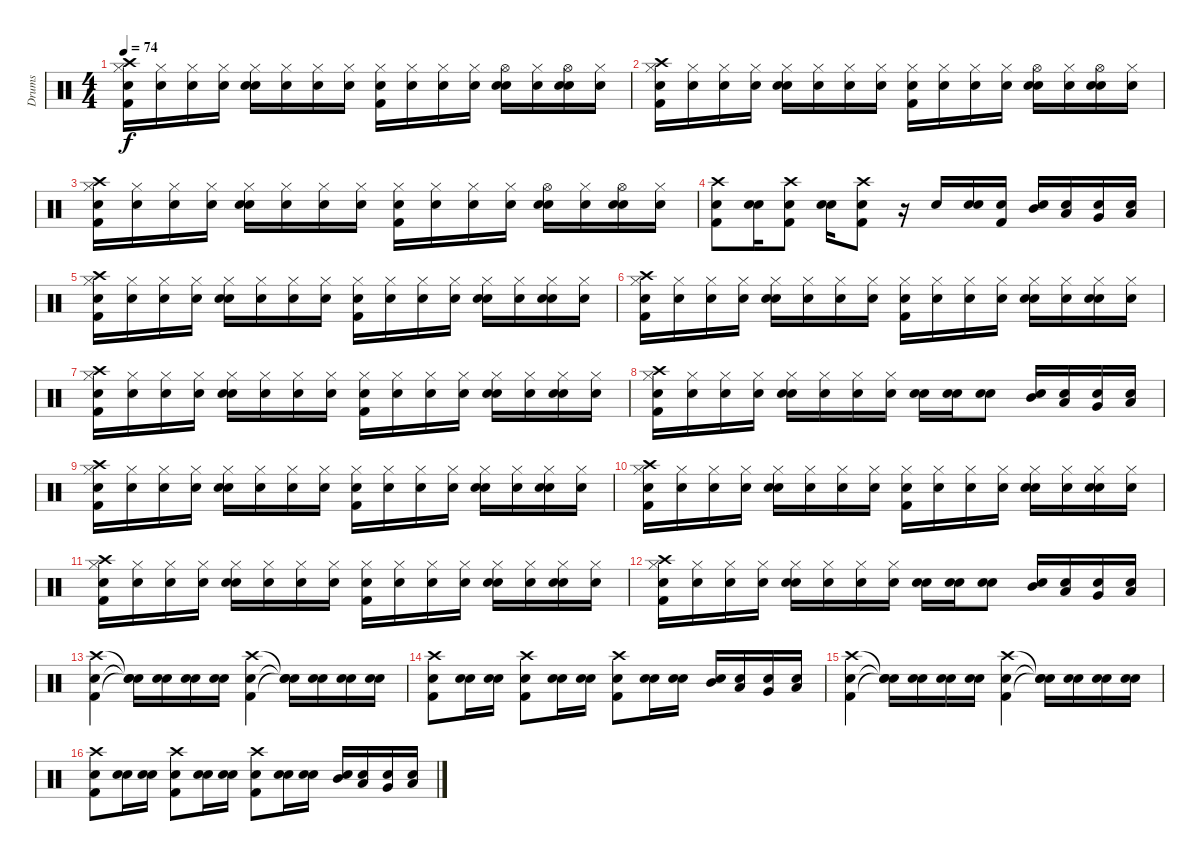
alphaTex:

\track ("Drums" "Drums") {instrument percussion}
\staff {score}
\articulation defaults
\ts (4 4)
\tempo 74
\clef neutral
\ks c
("Snare (hit)" "Kick (hit) 2" "Hi-Hat (closed)" "Crash high (hit)").16{dy f} ("Snare (hit)" "Hi-Hat (closed)").16 ("Snare (hit)" "Hi-Hat (closed)").16 ("Snare (hit)" "Hi-Hat (closed)").16 ("Snare (hit)" "Snare (hit) 2" "Hi-Hat (closed)").16 ("Snare (hit)" "Hi-Hat (closed)").16 ("Snare (hit)" "Hi-Hat (closed)").16 ("Snare (hit)" "Hi-Hat (closed)").16 ("Snare (hit)" "Kick (hit) 2" "Hi-Hat (closed)").16 ("Snare (hit)" "Hi-Hat (closed)").16 ("Snare (hit)" "Hi-Hat (closed)").16 ("Snare (hit)" "Hi-Hat (closed)").16 ("Snare (hit)" "Snare (hit) 2" "Hi-Hat (open)").16 ("Snare (hit)" "Hi-Hat (closed)").16 ("Snare (hit)" "Snare (hit) 2" "Hi-Hat (open)").16 ("Snare (hit)" "Hi-Hat (closed)").16 |
("Snare (hit)" "Kick (hit) 2" "Hi-Hat (closed)" "Crash high (hit)").16 ("Snare (hit)" "Hi-Hat (closed)").16 ("Snare (hit)" "Hi-Hat (closed)").16 ("Snare (hit)" "Hi-Hat (closed)").16 ("Snare (hit)" "Snare (hit) 2" "Hi-Hat (closed)").16 ("Snare (hit)" "Hi-Hat (closed)").16 ("Snare (hit)" "Hi-Hat (closed)").16 ("Snare (hit)" "Hi-Hat (closed)").16 ("Snare (hit)" "Kick (hit) 2" "Hi-Hat (closed)").16 ("Snare (hit)" "Hi-Hat (closed)").16 ("Snare (hit)" "Hi-Hat (closed)").16 ("Snare (hit)" "Hi-Hat (closed)").16 ("Snare (hit)" "Snare (hit) 2" "Hi-Hat (open)").16 ("Snare (hit)" "Hi-Hat (closed)").16 ("Snare (hit)" "Snare (hit) 2" "Hi-Hat (open)").16 ("Snare (hit)" "Hi-Hat (closed)").16 |
("Snare (hit)" "Kick (hit) 2" "Hi-Hat (closed)" "Crash high (hit)").16 ("Snare (hit)" "Hi-Hat (closed)").16 ("Snare (hit)" "Hi-Hat (closed)").16 ("Snare (hit)" "Hi-Hat (closed)").16 ("Snare (hit)" "Snare (hit) 2" "Hi-Hat (closed)").16 ("Snare (hit)" "Hi-Hat (closed)").16 ("Snare (hit)" "Hi-Hat (closed)").16 ("Snare (hit)" "Hi-Hat (closed)").16 ("Snare (hit)" "Kick (hit) 2" "Hi-Hat (closed)").16 ("Snare (hit)" "Hi-Hat (closed)").16 ("Snare (hit)" "Hi-Hat (closed)").16 ("Snare (hit)" "Hi-Hat (closed)").16 ("Snare (hit)" "Snare (hit) 2" "Hi-Hat (open)").16 ("Snare (hit)" "Hi-Hat (closed)").16 ("Snare (hit)" "Snare (hit) 2" "Hi-Hat (open)").16 ("Snare (hit)" "Hi-Hat (closed)").16 |
("Snare (hit)" "Kick (hit) 2" "Crash high (hit)").8 ("Snare (hit)" "Snare (hit) 2").16 ("Snare (hit)" "Kick (hit) 2" "Crash high (hit)").8 ("Snare (hit)" "Snare (hit) 2").16 ("Snare (hit)" "Kick (hit) 2" "Crash high (hit)").8 r.16 "Snare (hit) 2".16 ("Snare (hit)" "Snare (hit) 2").16 ("Snare (hit)" "Kick (hit) 2").16 ("Snare (hit)" "Mid Tom (hit)").16 ("Snare (hit)" "Low Tom (hit)").16 ("Snare (hit)" "Very Low Tom (hit)").16 ("Snare (hit)" "Low Floor Tom (hit)").16 |
("Snare (hit)" "Kick (hit) 2" "Hi-Hat (closed)" "Crash high (hit)").16 ("Snare (hit)" "Hi-Hat (closed)").16 ("Snare (hit)" "Hi-Hat (closed)").16 ("Snare (hit)" "Hi-Hat (closed)").16 ("Snare (hit)" "Snare (hit) 2" "Hi-Hat (closed)").16 ("Snare (hit)" "Hi-Hat (closed)").16 ("Snare (hit)" "Hi-Hat (closed)").16 ("Snare (hit)" "Hi-Hat (closed)").16 ("Snare (hit)" "Kick (hit) 2" "Hi-Hat (closed)").16 ("Snare (hit)" "Hi-Hat (closed)").16 ("Snare (hit)" "Hi-Hat (closed)").16 ("Snare (hit)" "Hi-Hat (closed)").16 ("Snare (hit)" "Snare (hit) 2" "Hi-Hat (closed)").16 ("Snare (hit)" "Hi-Hat (closed)").16 ("Snare (hit)" "Snare (hit) 2" "Hi-Hat (closed)").16 ("Snare (hit)" "Hi-Hat (closed)").16 |
("Snare (hit)" "Kick (hit) 2" "Hi-Hat (closed)" "Crash high (hit)").16 ("Snare (hit)" "Hi-Hat (closed)").16 ("Snare (hit)" "Hi-Hat (closed)").16 ("Snare (hit)" "Hi-Hat (closed)").16 ("Snare (hit)" "Snare (hit) 2" "Hi-Hat (closed)").16 ("Snare (hit)" "Hi-Hat (closed)").16 ("Snare (hit)" "Hi-Hat (closed)").16 ("Snare (hit)" "Hi-Hat (closed)").16 ("Snare (hit)" "Kick (hit) 2" "Hi-Hat (closed)").16 ("Snare (hit)" "Hi-Hat (closed)").16 ("Snare (hit)" "Hi-Hat (closed)").16 ("Snare (hit)" "Hi-Hat (closed)").16 ("Snare (hit)" "Snare (hit) 2" "Hi-Hat (closed)").16 ("Snare (hit)" "Hi-Hat (closed)").16 ("Snare (hit)" "Snare (hit) 2" "Hi-Hat (closed)").16 ("Snare (hit)" "Hi-Hat (closed)").16 |
("Snare (hit)" "Kick (hit) 2" "Hi-Hat (closed)" "Crash high (hit)").16 ("Snare (hit)" "Hi-Hat (closed)").16 ("Snare (hit)" "Hi-Hat (closed)").16 ("Snare (hit)" "Hi-Hat (closed)").16 ("Snare (hit)" "Snare (hit) 2" "Hi-Hat (closed)").16 ("Snare (hit)" "Hi-Hat (closed)").16 ("Snare (hit)" "Hi-Hat (closed)").16 ("Snare (hit)" "Hi-Hat (closed)").16 ("Snare (hit)" "Kick (hit) 2" "Hi-Hat (closed)").16 ("Snare (hit)" "Hi-Hat (closed)").16 ("Snare (hit)" "Hi-Hat (closed)").16 ("Snare (hit)" "Hi-Hat (closed)").16 ("Snare (hit)" "Snare (hit) 2" "Hi-Hat (closed)").16 ("Snare (hit)" "Hi-Hat (closed)").16 ("Snare (hit)" "Snare (hit) 2" "Hi-Hat (closed)").16 ("Snare (hit)" "Hi-Hat (closed)").16 |
("Snare (hit)" "Kick (hit) 2" "Hi-Hat (closed)" "Crash high (hit)").16 ("Snare (hit)" "Hi-Hat (closed)").16 ("Snare (hit)" "Hi-Hat (closed)").16 ("Snare (hit)" "Hi-Hat (closed)").16 ("Snare (hit)" "Snare (hit) 2" "Hi-Hat (closed)").16 ("Snare (hit)" "Hi-Hat (closed)").16 ("Snare (hit)" "Hi-Hat (closed)").16 ("Snare (hit)" "Hi-Hat (closed)").16 ("Snare (hit)" "Snare (hit) 2").16 ("Snare (hit)" "Snare (hit) 2").16 ("Snare (hit)" "Snare (hit) 2").8 ("Snare (hit)" "Mid Tom (hit)").16 ("Snare (hit)" "Low Tom (hit)").16 ("Snare (hit)" "Very Low Tom (hit)").16 ("Snare (hit)" "Low Floor Tom (hit)").16 |
("Snare (hit)" "Kick (hit) 2" "Hi-Hat (closed)" "Crash high (hit)").16 ("Snare (hit)" "Hi-Hat (closed)").16 ("Snare (hit)" "Hi-Hat (closed)").16 ("Snare (hit)" "Hi-Hat (closed)").16 ("Snare (hit)" "Snare (hit) 2" "Hi-Hat (closed)").16 ("Snare (hit)" "Hi-Hat (closed)").16 ("Snare (hit)" "Hi-Hat (closed)").16 ("Snare (hit)" "Hi-Hat (closed)").16 ("Snare (hit)" "Kick (hit) 2" "Hi-Hat (closed)").16 ("Snare (hit)" "Hi-Hat (closed)").16 ("Snare (hit)" "Hi-Hat (closed)").16 ("Snare (hit)" "Hi-Hat (closed)").16 ("Snare (hit)" "Snare (hit) 2" "Hi-Hat (closed)").16 ("Snare (hit)" "Hi-Hat (closed)").16 ("Snare (hit)" "Snare (hit) 2" "Hi-Hat (closed)").16 ("Snare (hit)" "Hi-Hat (closed)").16 |
("Snare (hit)" "Kick (hit) 2" "Hi-Hat (closed)" "Crash high (hit)").16 ("Snare (hit)" "Hi-Hat (closed)").16 ("Snare (hit)" "Hi-Hat (closed)").16 ("Snare (hit)" "Hi-Hat (closed)").16 ("Snare (hit)" "Snare (hit) 2" "Hi-Hat (closed)").16 ("Snare (hit)" "Hi-Hat (closed)").16 ("Snare (hit)" "Hi-Hat (closed)").16 ("Snare (hit)" "Hi-Hat (closed)").16 ("Snare (hit)" "Kick (hit) 2" "Hi-Hat (closed)").16 ("Snare (hit)" "Hi-Hat (closed)").16 ("Snare (hit)" "Hi-Hat (closed)").16 ("Snare (hit)" "Hi-Hat (closed)").16 ("Snare (hit)" "Snare (hit) 2" "Hi-Hat (closed)").16 ("Snare (hit)" "Hi-Hat (closed)").16 ("Snare (hit)" "Snare (hit) 2" "Hi-Hat (closed)").16 ("Snare (hit)" "Hi-Hat (closed)").16 |
("Snare (hit)" "Kick (hit) 2" "Hi-Hat (closed)" "Crash high (hit)").16 ("Snare (hit)" "Hi-Hat (closed)").16 ("Snare (hit)" "Hi-Hat (closed)").16 ("Snare (hit)" "Hi-Hat (closed)").16 ("Snare (hit)" "Snare (hit) 2" "Hi-Hat (closed)").16 ("Snare (hit)" "Hi-Hat (closed)").16 ("Snare (hit)" "Hi-Hat (closed)").16 ("Snare (hit)" "Hi-Hat (closed)").16 ("Snare (hit)" "Kick (hit) 2" "Hi-Hat (closed)").16 ("Snare (hit)" "Hi-Hat (closed)").16 ("Snare (hit)" "Hi-Hat (closed)").16 ("Snare (hit)" "Hi-Hat (closed)").16 ("Snare (hit)" "Snare (hit) 2" "Hi-Hat (closed)").16 ("Snare (hit)" "Hi-Hat (closed)").16 ("Snare (hit)" "Snare (hit) 2" "Hi-Hat (closed)").16 ("Snare (hit)" "Hi-Hat (closed)").16 |
("Snare (hit)" "Kick (hit) 2" "Hi-Hat (closed)" "Crash high (hit)").16 ("Snare (hit)" "Hi-Hat (closed)").16 ("Snare (hit)" "Hi-Hat (closed)").16 ("Snare (hit)" "Hi-Hat (closed)").16 ("Snare (hit)" "Snare (hit) 2" "Hi-Hat (closed)").16 ("Snare (hit)" "Hi-Hat (closed)").16 ("Snare (hit)" "Hi-Hat (closed)").16 ("Snare (hit)" "Hi-Hat (closed)").16 ("Snare (hit)" "Snare (hit) 2").16 ("Snare (hit)" "Snare (hit) 2").16 ("Snare (hit)" "Snare (hit) 2").8 ("Snare (hit)" "Mid Tom (hit)").16 ("Snare (hit)" "Low Tom (hit)").16 ("Snare (hit)" "Very Low Tom (hit)").16 ("Snare (hit)" "Low Floor Tom (hit)").16 |
("Snare (hit)" "Kick (hit) 2" "Crash high (hit)").4 ("Snare (hit)"{t} "Snare (hit)"{t} "Snare (hit)"{t}).16 ("Snare (hit)" "Snare (hit) 2").16 ("Snare (hit)" "Snare (hit) 2").16 ("Snare (hit)" "Snare (hit) 2").16 ("Snare (hit)" "Kick (hit) 2" "Crash high (hit)").4 ("Snare (hit)"{t} "Snare (hit)"{t} "Snare (hit)"{t}).16 ("Snare (hit)" "Snare (hit) 2").16 ("Snare (hit)" "Snare (hit) 2").16 ("Snare (hit)" "Snare (hit) 2").16 |
("Snare (hit)" "Kick (hit) 2" "Crash high (hit)").8 ("Snare (hit)" "Snare (hit) 2").16 ("Snare (hit)" "Snare (hit) 2").16 ("Snare (hit)" "Kick (hit) 2" "Crash high (hit)").8 ("Snare (hit)" "Snare (hit) 2").16 ("Snare (hit)" "Snare (hit) 2").16 ("Snare (hit)" "Kick (hit) 2" "Crash high (hit)").8 ("Snare (hit)" "Snare (hit) 2").16 ("Snare (hit)" "Snare (hit) 2").16 ("Snare (hit)" "Mid Tom (hit)").16 ("Snare (hit)" "Low Tom (hit)").16 ("Snare (hit)" "Very Low Tom (hit)").16 ("Snare (hit)" "Low Floor Tom (hit)").16 |
("Snare (hit)" "Kick (hit) 2" "Crash high (hit)").4 ("Snare (hit)"{t} "Snare (hit)"{t} "Snare (hit)"{t}).16 ("Snare (hit)" "Snare (hit) 2").16 ("Snare (hit)" "Snare (hit) 2").16 ("Snare (hit)" "Snare (hit) 2").16 ("Snare (hit)" "Kick (hit) 2" "Crash high (hit)").4 ("Snare (hit)"{t} "Snare (hit)"{t} "Snare (hit)"{t}).16 ("Snare (hit)" "Snare (hit) 2").16 ("Snare (hit)" "Snare (hit) 2").16 ("Snare (hit)" "Snare (hit) 2").16 |
("Snare (hit)" "Kick (hit) 2" "Crash high (hit)").8 ("Snare (hit)" "Snare (hit) 2").16 ("Snare (hit)" "Snare (hit) 2").16 ("Snare (hit)" "Kick (hit) 2" "Crash high (hit)").8 ("Snare (hit)" "Snare (hit) 2").16 ("Snare (hit)" "Snare (hit) 2").16 ("Snare (hit)" "Kick (hit) 2" "Crash high (hit)").8 ("Snare (hit)" "Snare (hit) 2").16 ("Snare (hit)" "Snare (hit) 2").16 ("Snare (hit)" "Mid Tom (hit)").16 ("Snare (hit)" "Low Tom (hit)").16 ("Snare (hit)" "Very Low Tom (hit)").16 ("Snare (hit)" "Low Floor Tom (hit)").16
